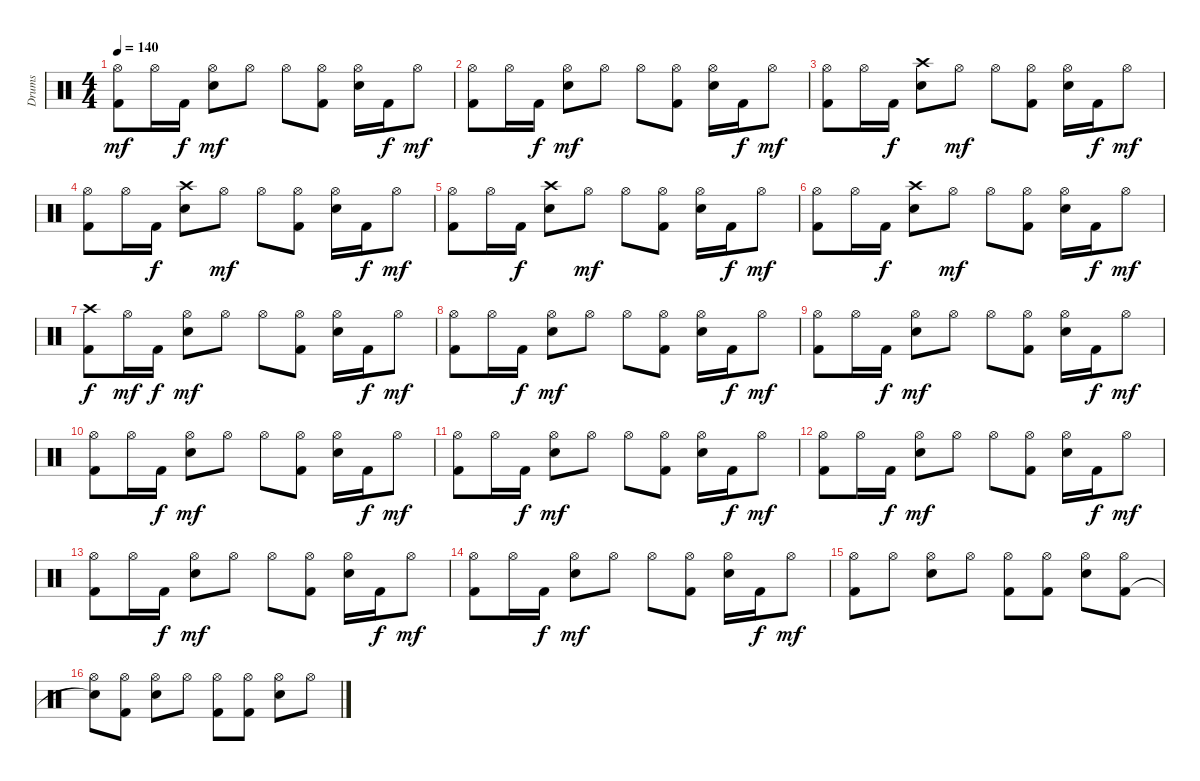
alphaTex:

\track ("Drums" "Drums") {instrument percussion}
\staff {score}
\articulation defaults
\ts (4 4)
\tempo 140
\clef neutral
\ks c
("Hi-Hat (open)" "Kick (hit) 2").8{dy mf} "Hi-Hat (open)".16 "Kick (hit) 2".16{dy f} ("Hi-Hat (open)" "Electric Snare (hit)").8{dy mf} "Hi-Hat (open)".8 "Hi-Hat (open)".8 ("Hi-Hat (open)" "Kick (hit) 2").8 ("Hi-Hat (open)" "Electric Snare (hit)").16 "Kick (hit) 2".16{dy f} "Hi-Hat (open)".8{dy mf} |
("Hi-Hat (open)" "Kick (hit) 2").8 "Hi-Hat (open)".16 "Kick (hit) 2".16{dy f} ("Hi-Hat (open)" "Electric Snare (hit)").8{dy mf} "Hi-Hat (open)".8 "Hi-Hat (open)".8 ("Hi-Hat (open)" "Kick (hit) 2").8 ("Hi-Hat (open)" "Electric Snare (hit)").16 "Kick (hit) 2".16{dy f} "Hi-Hat (open)".8{dy mf} |
("Hi-Hat (open)" "Kick (hit) 2").8 "Hi-Hat (open)".16 "Kick (hit) 2".16{dy f} ("Crash high (hit)" "Electric Snare (hit)").8 "Hi-Hat (open)".8{dy mf} "Hi-Hat (open)".8 ("Hi-Hat (open)" "Kick (hit) 2").8 ("Hi-Hat (open)" "Electric Snare (hit)").16 "Kick (hit) 2".16{dy f} "Hi-Hat (open)".8{dy mf} |
("Hi-Hat (open)" "Kick (hit) 2").8 "Hi-Hat (open)".16 "Kick (hit) 2".16{dy f} ("Crash high (hit)" "Electric Snare (hit)").8 "Hi-Hat (open)".8{dy mf} "Hi-Hat (open)".8 ("Hi-Hat (open)" "Kick (hit) 2").8 ("Hi-Hat (open)" "Electric Snare (hit)").16 "Kick (hit) 2".16{dy f} "Hi-Hat (open)".8{dy mf} |
("Hi-Hat (open)" "Kick (hit) 2").8 "Hi-Hat (open)".16 "Kick (hit) 2".16{dy f} ("Crash high (hit)" "Electric Snare (hit)").8 "Hi-Hat (open)".8{dy mf} "Hi-Hat (open)".8 ("Hi-Hat (open)" "Kick (hit) 2").8 ("Hi-Hat (open)" "Electric Snare (hit)").16 "Kick (hit) 2".16{dy f} "Hi-Hat (open)".8{dy mf} |
("Hi-Hat (open)" "Kick (hit) 2").8 "Hi-Hat (open)".16 "Kick (hit) 2".16{dy f} ("Crash high (hit)" "Electric Snare (hit)").8 "Hi-Hat (open)".8{dy mf} "Hi-Hat (open)".8 ("Hi-Hat (open)" "Kick (hit) 2").8 ("Hi-Hat (open)" "Electric Snare (hit)").16 "Kick (hit) 2".16{dy f} "Hi-Hat (open)".8{dy mf} |
("Crash high (hit)" "Kick (hit) 2").8{dy f} "Hi-Hat (open)".16{dy mf} "Kick (hit) 2".16{dy f} ("Hi-Hat (open)" "Electric Snare (hit)").8{dy mf} "Hi-Hat (open)".8 "Hi-Hat (open)".8 ("Hi-Hat (open)" "Kick (hit) 2").8 ("Hi-Hat (open)" "Electric Snare (hit)").16 "Kick (hit) 2".16{dy f} "Hi-Hat (open)".8{dy mf} |
("Hi-Hat (open)" "Kick (hit) 2").8 "Hi-Hat (open)".16 "Kick (hit) 2".16{dy f} ("Hi-Hat (open)" "Electric Snare (hit)").8{dy mf} "Hi-Hat (open)".8 "Hi-Hat (open)".8 ("Hi-Hat (open)" "Kick (hit) 2").8 ("Hi-Hat (open)" "Electric Snare (hit)").16 "Kick (hit) 2".16{dy f} "Hi-Hat (open)".8{dy mf} |
("Hi-Hat (open)" "Kick (hit) 2").8 "Hi-Hat (open)".16 "Kick (hit) 2".16{dy f} ("Hi-Hat (open)" "Electric Snare (hit)").8{dy mf} "Hi-Hat (open)".8 "Hi-Hat (open)".8 ("Hi-Hat (open)" "Kick (hit) 2").8 ("Hi-Hat (open)" "Electric Snare (hit)").16 "Kick (hit) 2".16{dy f} "Hi-Hat (open)".8{dy mf} |
("Hi-Hat (open)" "Kick (hit) 2").8 "Hi-Hat (open)".16 "Kick (hit) 2".16{dy f} ("Hi-Hat (open)" "Electric Snare (hit)").8{dy mf} "Hi-Hat (open)".8 "Hi-Hat (open)".8 ("Hi-Hat (open)" "Kick (hit) 2").8 ("Hi-Hat (open)" "Electric Snare (hit)").16 "Kick (hit) 2".16{dy f} "Hi-Hat (open)".8{dy mf} |
("Hi-Hat (open)" "Kick (hit) 2").8 "Hi-Hat (open)".16 "Kick (hit) 2".16{dy f} ("Hi-Hat (open)" "Electric Snare (hit)").8{dy mf} "Hi-Hat (open)".8 "Hi-Hat (open)".8 ("Hi-Hat (open)" "Kick (hit) 2").8 ("Hi-Hat (open)" "Electric Snare (hit)").16 "Kick (hit) 2".16{dy f} "Hi-Hat (open)".8{dy mf} |
("Hi-Hat (open)" "Kick (hit) 2").8 "Hi-Hat (open)".16 "Kick (hit) 2".16{dy f} ("Hi-Hat (open)" "Electric Snare (hit)").8{dy mf} "Hi-Hat (open)".8 "Hi-Hat (open)".8 ("Hi-Hat (open)" "Kick (hit) 2").8 ("Hi-Hat (open)" "Electric Snare (hit)").16 "Kick (hit) 2".16{dy f} "Hi-Hat (open)".8{dy mf} |
("Hi-Hat (open)" "Kick (hit) 2").8 "Hi-Hat (open)".16 "Kick (hit) 2".16{dy f} ("Hi-Hat (open)" "Electric Snare (hit)").8{dy mf} "Hi-Hat (open)".8 "Hi-Hat (open)".8 ("Hi-Hat (open)" "Kick (hit) 2").8 ("Hi-Hat (open)" "Electric Snare (hit)").16 "Kick (hit) 2".16{dy f} "Hi-Hat (open)".8{dy mf} |
("Hi-Hat (open)" "Kick (hit) 2").8 "Hi-Hat (open)".16 "Kick (hit) 2".16{dy f} ("Hi-Hat (open)" "Electric Snare (hit)").8{dy mf} "Hi-Hat (open)".8 "Hi-Hat (open)".8 ("Hi-Hat (open)" "Kick (hit) 2").8 ("Hi-Hat (open)" "Electric Snare (hit)").16 "Kick (hit) 2".16{dy f} "Hi-Hat (open)".8{dy mf} |
("Hi-Hat (open)" "Kick (hit) 2").8 "Hi-Hat (open)".8 ("Hi-Hat (open)" "Electric Snare (hit)").8 "Hi-Hat (open)".8 ("Hi-Hat (open)" "Kick (hit) 2").8 ("Hi-Hat (open)" "Kick (hit) 2").8 ("Hi-Hat (open)" "Electric Snare (hit)").8 ("Hi-Hat (open)" "Kick (hit) 2").8 |
("Hi-Hat (open)" "Snare (hit)"{t}).8 ("Hi-Hat (open)" "Kick (hit) 2").8 ("Hi-Hat (open)" "Electric Snare (hit)").8 "Hi-Hat (open)".8 ("Hi-Hat (open)" "Kick (hit) 2").8 ("Hi-Hat (open)" "Kick (hit) 2").8 ("Hi-Hat (open)" "Electric Snare (hit)").8 "Hi-Hat (open)".8
